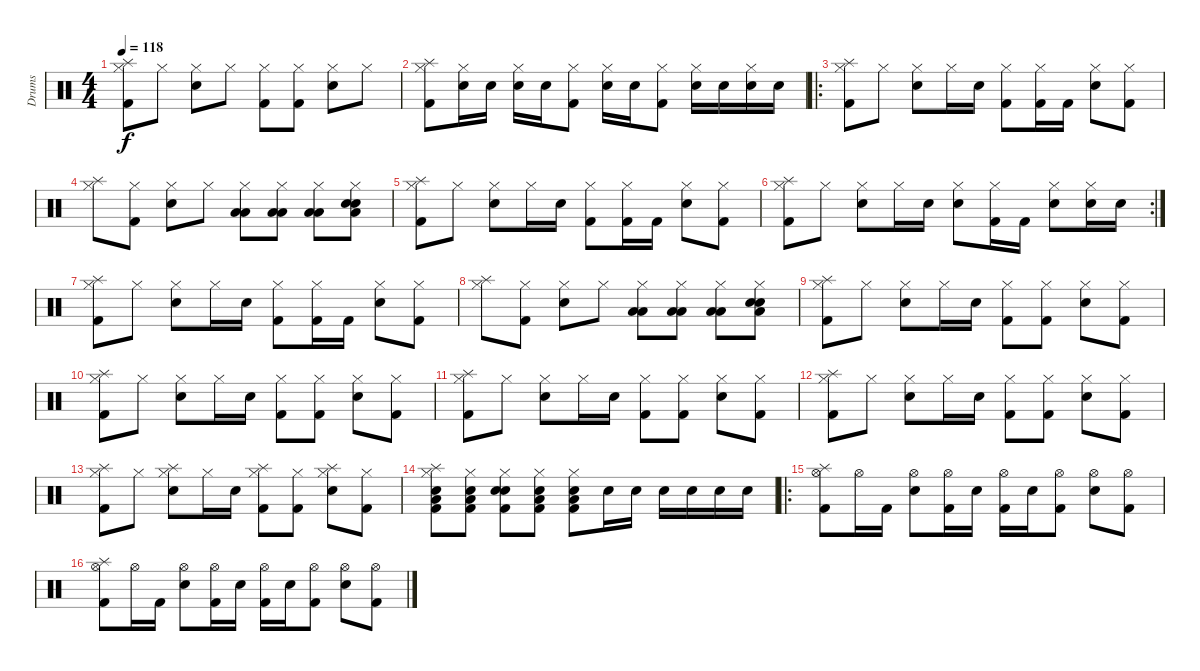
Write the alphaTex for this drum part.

\track ("Drums" "Drums") {instrument percussion}
\staff {score}
\articulation defaults
\ts (4 4)
\tempo 118
\clef neutral
\ks c
("Splash (hit)" "Hi-Hat (closed)" "Kick (hit) 2").8{dy f} "Hi-Hat (closed)".8 ("Hi-Hat (closed)" "Snare (hit) 2").8 "Hi-Hat (closed)".8 ("Hi-Hat (closed)" "Kick (hit) 2").8 ("Hi-Hat (closed)" "Kick (hit) 2").8 ("Hi-Hat (closed)" "Snare (hit) 2").8 "Hi-Hat (closed)".8 |
("Splash (hit)" "Hi-Hat (closed)" "Kick (hit) 2").8 ("Hi-Hat (closed)" "Snare (hit) 2").16 "Snare (hit) 2".16 ("Hi-Hat (closed)" "Snare (hit) 2").16 "Snare (hit) 2".16 ("Hi-Hat (closed)" "Kick (hit) 2").8 ("Hi-Hat (closed)" "Snare (hit) 2").16 "Snare (hit) 2".16 ("Hi-Hat (closed)" "Kick (hit) 2").8 ("Hi-Hat (closed)" "Snare (hit) 2").16 "Snare (hit) 2".16 ("Hi-Hat (closed)" "Snare (hit) 2").16 "Snare (hit) 2".16 |
\ro
("Splash (hit)" "Hi-Hat (closed)" "Kick (hit) 2").8 "Hi-Hat (closed)".8 ("Hi-Hat (closed)" "Snare (hit) 2").8 "Hi-Hat (closed)".16 "Snare (hit) 2".16 ("Hi-Hat (closed)" "Kick (hit) 2").8 ("Hi-Hat (closed)" "Kick (hit) 2").16 "Kick (hit) 2".16 ("Hi-Hat (closed)" "Snare (hit) 2").8 ("Hi-Hat (closed)" "Kick (hit) 2").8 |
("Splash (hit)" "Hi-Hat (closed)").8 ("Hi-Hat (closed)" "Kick (hit) 2").8 ("Hi-Hat (closed)" "Snare (hit) 2").8 "Hi-Hat (closed)".8 ("Low Tom (hit)" "Hi-Hat (closed)" "Low Floor Tom (hit)").8 ("Low Tom (hit)" "Hi-Hat (closed)" "Low Floor Tom (hit)").8 ("Low Tom (hit)" "Hi-Hat (closed)" "Low Floor Tom (hit)").8 ("Snare (hit) 2" "Hi-Hat (closed)" "Low Floor Tom (hit)" "Snare (hit) 2").8 |
("Splash (hit)" "Hi-Hat (closed)" "Kick (hit) 2").8 "Hi-Hat (closed)".8 ("Hi-Hat (closed)" "Snare (hit) 2").8 "Hi-Hat (closed)".16 "Snare (hit) 2".16 ("Hi-Hat (closed)" "Kick (hit) 2").8 ("Hi-Hat (closed)" "Kick (hit) 2").16 "Kick (hit) 2".16 ("Hi-Hat (closed)" "Snare (hit) 2").8 ("Hi-Hat (closed)" "Kick (hit) 2").8 |
\rc 2
("Splash (hit)" "Hi-Hat (closed)" "Kick (hit) 2").8 "Hi-Hat (closed)".8 ("Hi-Hat (closed)" "Snare (hit) 2").8 "Hi-Hat (closed)".16 "Snare (hit) 2".16 ("Hi-Hat (closed)" "Snare (hit) 2").8 ("Hi-Hat (closed)" "Kick (hit) 2").16 "Kick (hit) 2".16 ("Hi-Hat (closed)" "Snare (hit) 2").8 ("Hi-Hat (closed)" "Snare (hit) 2").16 "Snare (hit) 2".16 |
("Splash (hit)" "Hi-Hat (closed)" "Kick (hit) 2").8 "Hi-Hat (closed)".8 ("Hi-Hat (closed)" "Snare (hit) 2").8 "Hi-Hat (closed)".16 "Snare (hit) 2".16 ("Hi-Hat (closed)" "Kick (hit) 2").8 ("Hi-Hat (closed)" "Kick (hit) 2").16 "Kick (hit) 2".16 ("Hi-Hat (closed)" "Snare (hit) 2").8 ("Hi-Hat (closed)" "Kick (hit) 2").8 |
("Splash (hit)" "Hi-Hat (closed)").8 ("Hi-Hat (closed)" "Kick (hit) 2").8 ("Hi-Hat (closed)" "Snare (hit) 2").8 "Hi-Hat (closed)".8 ("Low Tom (hit)" "Hi-Hat (closed)" "Low Floor Tom (hit)").8 ("Low Tom (hit)" "Hi-Hat (closed)" "Low Floor Tom (hit)").8 ("Low Tom (hit)" "Hi-Hat (closed)" "Low Floor Tom (hit)").8 ("Snare (hit) 2" "Hi-Hat (closed)" "Low Floor Tom (hit)" "Snare (hit) 2").8 |
("Splash (hit)" "Hi-Hat (closed)" "Kick (hit) 2").8 "Hi-Hat (closed)".8 ("Hi-Hat (closed)" "Snare (hit) 2").8 "Hi-Hat (closed)".16 "Snare (hit) 2".16 ("Hi-Hat (closed)" "Kick (hit) 2").8 ("Hi-Hat (closed)" "Kick (hit) 2").8 ("Hi-Hat (closed)" "Snare (hit) 2").8 ("Hi-Hat (closed)" "Kick (hit) 2").8 |
("Splash (hit)" "Hi-Hat (closed)" "Kick (hit) 2").8 "Hi-Hat (closed)".8 ("Hi-Hat (closed)" "Snare (hit) 2").8 "Hi-Hat (closed)".16 "Snare (hit) 2".16 ("Hi-Hat (closed)" "Kick (hit) 2").8 ("Hi-Hat (closed)" "Kick (hit) 2").8 ("Hi-Hat (closed)" "Snare (hit) 2").8 ("Hi-Hat (closed)" "Kick (hit) 2").8 |
("Splash (hit)" "Hi-Hat (closed)" "Kick (hit) 2").8 "Hi-Hat (closed)".8 ("Hi-Hat (closed)" "Snare (hit) 2").8 "Hi-Hat (closed)".16 "Snare (hit) 2".16 ("Hi-Hat (closed)" "Kick (hit) 2").8 ("Hi-Hat (closed)" "Kick (hit) 2").8 ("Hi-Hat (closed)" "Snare (hit) 2").8 ("Hi-Hat (closed)" "Kick (hit) 2").8 |
("Splash (hit)" "Hi-Hat (closed)" "Kick (hit) 2").8 "Hi-Hat (closed)".8 ("Hi-Hat (closed)" "Snare (hit) 2").8 "Hi-Hat (closed)".16 "Snare (hit) 2".16 ("Hi-Hat (closed)" "Kick (hit) 2").8 ("Hi-Hat (closed)" "Kick (hit) 2").8 ("Hi-Hat (closed)" "Snare (hit) 2").8 ("Hi-Hat (closed)" "Kick (hit) 2").8 |
("Splash (hit)" "Hi-Hat (closed)" "Kick (hit) 2").8 "Hi-Hat (closed)".8 ("Splash (hit)" "Hi-Hat (closed)" "Snare (hit) 2").8 "Hi-Hat (closed)".16 "Snare (hit) 2".16 ("Splash (hit)" "Hi-Hat (closed)" "Kick (hit) 2").8 ("Hi-Hat (closed)" "Kick (hit) 2").8 ("Splash (hit)" "Hi-Hat (closed)" "Snare (hit) 2").8 ("Hi-Hat (closed)" "Kick (hit) 2").8 |
("Snare (hit) 2" "Splash (hit)" "Hi-Hat (closed)" "Low Floor Tom (hit)" "Kick (hit) 2").8 ("Snare (hit) 2" "Hi-Hat (closed)" "Low Floor Tom (hit)" "Kick (hit) 2").8 ("Snare (hit) 2" "Hi-Hat (closed)" "Snare (hit)" "Kick (hit) 2").8 ("Snare (hit) 2" "Hi-Hat (closed)" "Low Floor Tom (hit)" "Kick (hit) 2").8 ("Snare (hit) 2" "Hi-Hat (closed)" "Low Floor Tom (hit)" "Kick (hit) 2").8 "Snare (hit) 2".16 "Snare (hit) 2".16 "Snare (hit) 2".16 "Snare (hit) 2".16 "Snare (hit) 2".16 "Snare (hit) 2".16 |
\ro
("Splash (hit)" "Hi-Hat (open)" "Kick (hit) 2").8 "Hi-Hat (open)".16 "Kick (hit) 2".16 ("Hi-Hat (open)" "Snare (hit) 2").8 ("Hi-Hat (open)" "Kick (hit) 2").16 "Snare (hit) 2".16 ("Hi-Hat (open)" "Kick (hit) 2").16 "Snare (hit) 2".16 ("Hi-Hat (open)" "Kick (hit) 2").8 ("Hi-Hat (open)" "Snare (hit) 2").8 ("Hi-Hat (open)" "Kick (hit) 2").8 |
("Splash (hit)" "Hi-Hat (open)" "Kick (hit) 2").8 "Hi-Hat (open)".16 "Kick (hit) 2".16 ("Hi-Hat (open)" "Snare (hit) 2").8 ("Hi-Hat (open)" "Kick (hit) 2").16 "Snare (hit) 2".16 ("Hi-Hat (open)" "Kick (hit) 2").16 "Snare (hit) 2".16 ("Hi-Hat (open)" "Kick (hit) 2").8 ("Hi-Hat (open)" "Snare (hit) 2").8 ("Hi-Hat (open)" "Kick (hit) 2").8
